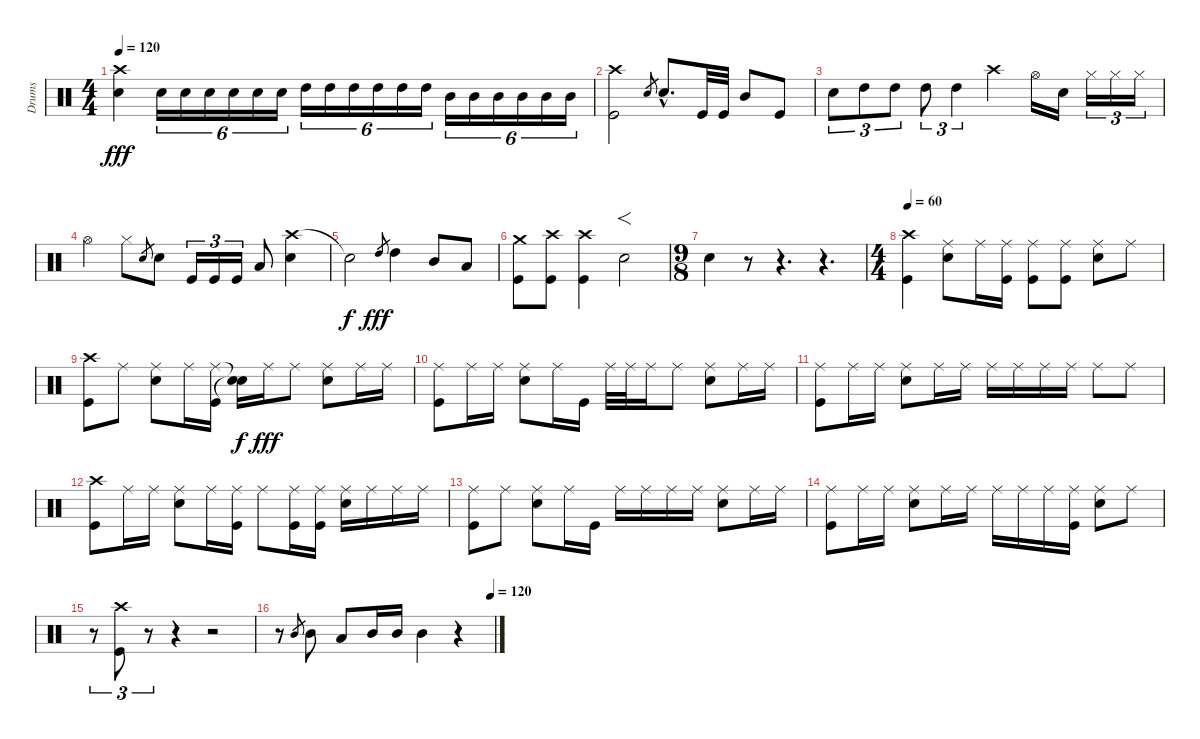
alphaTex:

\track ("Drums" "Drums") {instrument percussion}
\staff {score}
\articulation defaults
\ts (4 4)
\tempo 120
\clef neutral
\ks c
("Crash high (hit)" "Snare (hit) 2").4{dy fff} "Snare (hit) 2".16{tu (6 4)} "Snare (hit) 2".16{tu (6 4)} "Snare (hit) 2".16{tu (6 4)} "Snare (hit) 2".16{tu (6 4)} "Snare (hit) 2".16{tu (6 4)} "Snare (hit) 2".16{tu (6 4)} "High Tom (hit)".16{tu (6 4)} "High Tom (hit)".16{tu (6 4)} "High Tom (hit)".16{tu (6 4)} "High Tom (hit)".16{tu (6 4)} "High Tom (hit)".16{tu (6 4)} "High Tom (hit)".16{tu (6 4)} "Mid Tom (hit)".16{tu (6 4)} "Mid Tom (hit)".16{tu (6 4)} "Mid Tom (hit)".16{tu (6 4)} "Mid Tom (hit)".16{tu (6 4)} "Mid Tom (hit)".16{tu (6 4)} "Mid Tom (hit)".16{tu (6 4)} |
("Crash high (hit)" "Kick (hit)").2 "Snare (hit) 2".8{gr} "Snare (hit) 2"{hac}.8{d} "Kick (hit)".32 "Kick (hit)".32 "Mid Tom (hit)".8 "Kick (hit)".8 |
"Snare (hit) 2".8{tu (3 2)} "High Tom (hit)".8{tu (3 2)} "High Tom (hit)".8{tu (3 2)} "High Tom (hit)".8{tu (3 2)} "High Tom (hit)".4{tu (3 2)} "Crash high (hit)".4 "Hi-Hat (open)".16 "Snare (hit) 2".16 "Hi-Hat (closed)".16{tu (3 2)} "Hi-Hat (closed)".16{tu (3 2)} "Hi-Hat (closed)".16{tu (3 2)} |
"Hi-Hat (open)".4 "Hi-Hat (closed)".8 "Snare (hit) 2".8{gr} "Snare (hit) 2".8 "Kick (hit)".16{tu (3 2)} "Kick (hit)".16{tu (3 2)} "Kick (hit)".16{tu (3 2)} "Low Tom (hit)".8 ("Crash high (hit)" "Snare (hit) 2").4 |
"Snare (hit)"{t}.2{dy f} "High Tom (hit)".8{gr dy fff} "High Tom (hit)".4 "Mid Tom (hit)".8 "Low Tom (hit)".8 |
("Crash medium (hit)" "Kick (hit)").8 ("Crash high (hit)" "Kick (hit)").8 ("Crash high (hit)" "Kick (hit)").4 "Snare (hit) 2".2{f} |
\ts (9 8)
"Snare (hit) 2".4 r.8 r.4{d} r.4{d} |
\ts (4 4)
\tempo 60
("Crash high (hit)" "Kick (hit)").4 ("Ride (middle)" "Snare (hit) 2").8 "Ride (middle)".16 ("Ride (middle)" "Kick (hit)").16 ("Ride (middle)" "Kick (hit)").8 ("Ride (middle)" "Kick (hit)").8 ("Ride (middle)" "Snare (hit) 2").8 "Ride (middle)".8 |
("Crash high (hit)" "Kick (hit)").8 "Ride (middle)".8 ("Ride (middle)" "Snare (hit) 2").8 "Ride (middle)".16 ("Ride (middle)" "Kick (hit)").16 ("Snare (hit)"{t} "Snare (hit)"{t}).16{dy f} "Ride (middle)".16{dy fff} "Ride (middle)".8 ("Ride (middle)" "Snare (hit) 2").8 "Ride (middle)".16 "Ride (middle)".16 |
("Ride (middle)" "Kick (hit)").8 "Ride (middle)".16 "Ride (middle)".16 ("Ride (middle)" "Snare (hit) 2").8 "Ride (middle)".16 "Kick (hit)".16 "Ride (middle)".32 "Ride (middle)".32 "Ride (middle)".16 "Ride (middle)".8 ("Ride (middle)" "Snare (hit) 2").8 "Ride (middle)".16 "Ride (middle)".16 |
("Ride (middle)" "Kick (hit)").8 "Ride (middle)".16 "Ride (middle)".16 ("Ride (middle)" "Snare (hit) 2").8 "Ride (middle)".16 "Ride (middle)".16 "Ride (middle)".16 "Ride (middle)".16 "Ride (middle)".16 "Ride (middle)".16 "Ride (middle)".8 "Ride (middle)".8 |
("Crash high (hit)" "Kick (hit)").8 "Ride (middle)".16 "Ride (middle)".16 ("Ride (middle)" "Snare (hit) 2").8 "Ride (middle)".16 ("Ride (middle)" "Kick (hit)").16 "Ride (middle)".8 ("Ride (middle)" "Kick (hit)").16 ("Ride (middle)" "Kick (hit)").16 ("Ride (middle)" "Snare (hit) 2").16 "Ride (middle)".16 "Ride (middle)".16 "Ride (middle)".16 |
("Ride (middle)" "Kick (hit)").8 "Ride (middle)".8 ("Ride (middle)" "Snare (hit) 2").8 "Ride (middle)".16 "Kick (hit)".16 "Ride (middle)".16 "Ride (middle)".16 "Ride (middle)".16 "Ride (middle)".16 ("Ride (middle)" "Snare (hit) 2").8 "Ride (middle)".16 "Ride (middle)".16 |
("Ride (middle)" "Kick (hit)").8 "Ride (middle)".16 "Ride (middle)".16 ("Ride (middle)" "Snare (hit) 2").8 "Ride (middle)".16 "Ride (middle)".16 "Ride (middle)".16 "Ride (middle)".16 "Ride (middle)".16 ("Ride (middle)" "Kick (hit)").16 ("Ride (middle)" "Snare (hit) 2").8 "Ride (middle)".8 |
r.8{tu (3 2)} ("Crash high (hit)" "Kick (hit)").8{tu (3 2)} r.8{tu (3 2)} r.4 r.2 |
\tempo (120 0.984375)
r.8 "Mid Tom (hit)".8{gr} "Mid Tom (hit)".8 "Low Tom (hit)".8 "Mid Tom (hit)".16 "Mid Tom (hit)".16 "Mid Tom (hit)".4 r.4
